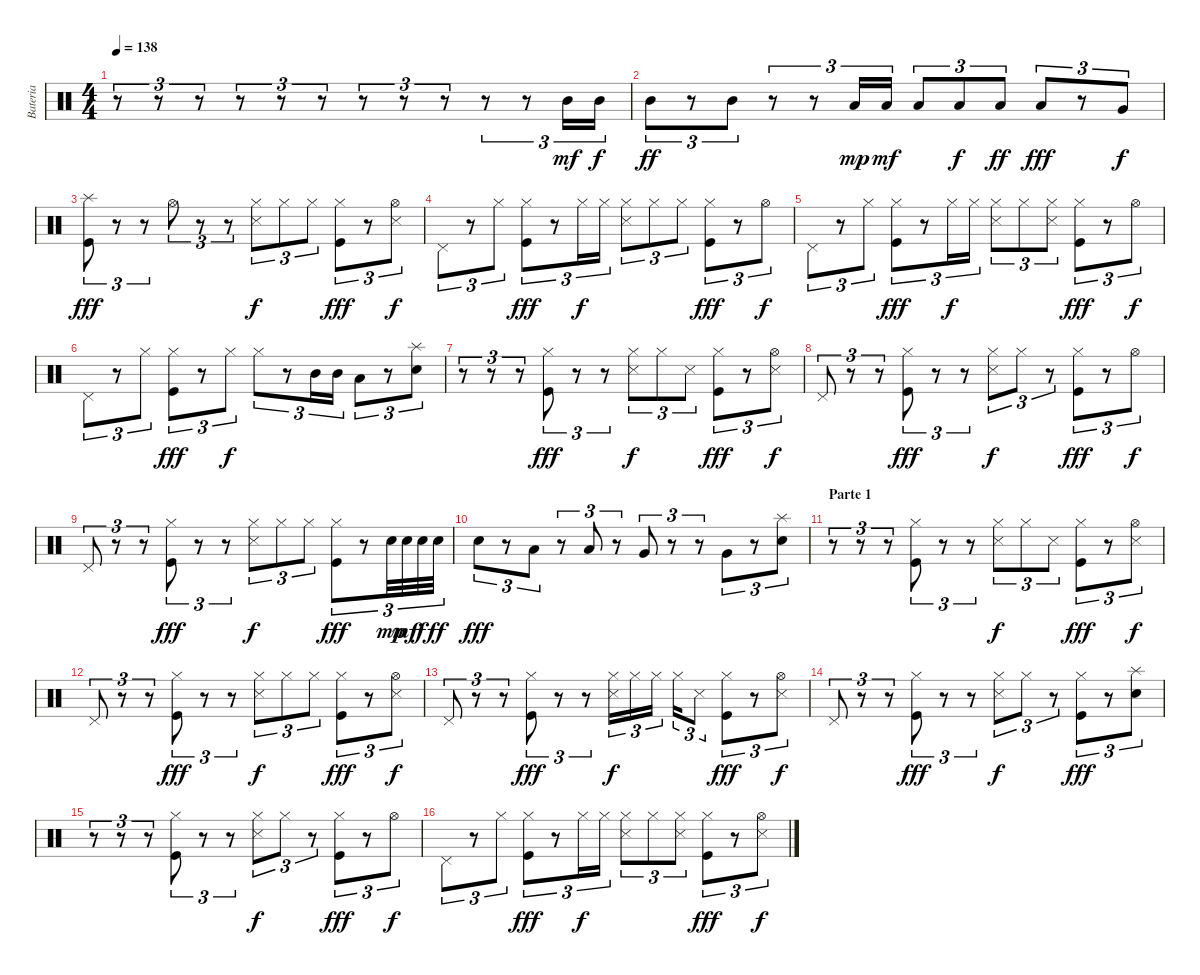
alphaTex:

\track ("Bateria" "Bateria") {instrument percussion}
\staff {score}
\articulation defaults
\ts (4 4)
\tempo 138
\clef neutral
\ks c
r.8{tu (3 2) dy mf} r.8{tu (3 2)} r.8{tu (3 2)} r.8{tu (3 2)} r.8{tu (3 2)} r.8{tu (3 2)} r.8{tu (3 2)} r.8{tu (3 2)} r.8{tu (3 2)} r.8{tu (3 2)} r.8{tu (3 2)} "Mid Tom (hit)".16{tu (3 2)} "Mid Tom (hit)".16{tu (3 2) dy f} |
"Mid Tom (hit)".8{tu (3 2) dy ff} r.8{tu (3 2)} "Mid Tom (hit)".8{tu (3 2)} r.8{tu (3 2)} r.8{tu (3 2)} "Low Tom (hit)".16{tu (3 2) dy mp} "Low Tom (hit)".16{tu (3 2) dy mf} "Low Tom (hit)".8{tu (3 2)} "Low Tom (hit)".8{tu (3 2) dy f} "Low Tom (hit)".8{tu (3 2) dy ff} "Low Tom (hit)".8{tu (3 2) dy fff} r.8{tu (3 2)} "Very Low Tom (hit)".8{tu (3 2) dy f} |
("Kick (hit)" "Splash (hit)").8{tu (3 2) dy fff} r.8{tu (3 2)} r.8{tu (3 2)} "Hi-Hat (open)".8{tu (3 2)} r.8{tu (3 2)} r.8{tu (3 2)} ("Snare (side stick) 3" "Hi-Hat (closed)").8{tu (3 2) dy f} "Hi-Hat (closed)".8{tu (3 2)} "Hi-Hat (closed)".8{tu (3 2)} ("Kick (hit)" "Hi-Hat (closed)").8{tu (3 2) dy fff} r.8{tu (3 2)} ("Snare (side stick) 3" "Hi-Hat (open)").8{tu (3 2) dy f} |
"Pedal Hi-Hat (hit)".8{tu (3 2)} r.8{tu (3 2)} "Hi-Hat (closed)".8{tu (3 2)} ("Kick (hit)" "Hi-Hat (closed)").8{tu (3 2) dy fff} r.8{tu (3 2)} "Hi-Hat (closed)".16{tu (3 2) dy f} "Hi-Hat (closed)".16{tu (3 2)} ("Snare (side stick) 3" "Hi-Hat (closed)").8{tu (3 2)} "Hi-Hat (closed)".8{tu (3 2)} "Hi-Hat (closed)".8{tu (3 2)} ("Kick (hit)" "Hi-Hat (closed)").8{tu (3 2) dy fff} r.8{tu (3 2)} "Hi-Hat (open)".8{tu (3 2) dy f} |
"Pedal Hi-Hat (hit)".8{tu (3 2)} r.8{tu (3 2)} "Hi-Hat (closed)".8{tu (3 2)} ("Kick (hit)" "Hi-Hat (closed)").8{tu (3 2) dy fff} r.8{tu (3 2)} "Hi-Hat (closed)".16{tu (3 2) dy f} "Hi-Hat (closed)".16{tu (3 2)} ("Snare (side stick) 3" "Hi-Hat (closed)").8{tu (3 2)} "Hi-Hat (closed)".8{tu (3 2)} ("Snare (side stick) 3" "Hi-Hat (closed)").8{tu (3 2)} ("Kick (hit)" "Hi-Hat (closed)").8{tu (3 2) dy fff} r.8{tu (3 2)} "Hi-Hat (open)".8{tu (3 2) dy f} |
"Pedal Hi-Hat (hit)".8{tu (3 2)} r.8{tu (3 2)} "Hi-Hat (closed)".8{tu (3 2)} ("Kick (hit)" "Hi-Hat (closed)").8{tu (3 2) dy fff} r.8{tu (3 2)} "Hi-Hat (closed)".8{tu (3 2) dy f} "Hi-Hat (closed)".8{tu (3 2)} r.8{tu (3 2)} "Mid Tom (hit)".16{tu (3 2)} "Mid Tom (hit)".16{tu (3 2)} "Low Tom (hit)".8{tu (3 2)} r.8{tu (3 2)} ("Electric Snare (hit)" "Splash (hit)").8{tu (3 2)} |
r.8{tu (3 2)} r.8{tu (3 2)} r.8{tu (3 2)} ("Kick (hit)" "Hi-Hat (closed)").8{tu (3 2) dy fff} r.8{tu (3 2)} r.8{tu (3 2)} ("Snare (side stick) 3" "Hi-Hat (closed)").8{tu (3 2) dy f} "Hi-Hat (closed)".8{tu (3 2)} "Snare (side stick) 3".8{tu (3 2)} ("Kick (hit)" "Hi-Hat (closed)").8{tu (3 2) dy fff} r.8{tu (3 2)} ("Snare (side stick) 3" "Hi-Hat (open)").8{tu (3 2) dy f} |
"Pedal Hi-Hat (hit)".8{tu (3 2)} r.8{tu (3 2)} r.8{tu (3 2)} ("Kick (hit)" "Hi-Hat (closed)").8{tu (3 2) dy fff} r.8{tu (3 2)} r.8{tu (3 2)} ("Snare (side stick) 3" "Hi-Hat (closed)").8{tu (3 2) dy f} "Hi-Hat (closed)".8{tu (3 2)} r.8{tu (3 2)} ("Kick (hit)" "Hi-Hat (closed)").8{tu (3 2) dy fff} r.8{tu (3 2)} "Hi-Hat (open)".8{tu (3 2) dy f} |
"Pedal Hi-Hat (hit)".8{tu (3 2)} r.8{tu (3 2)} r.8{tu (3 2)} ("Kick (hit)" "Hi-Hat (closed)").8{tu (3 2) dy fff} r.8{tu (3 2)} r.8{tu (3 2)} ("Snare (side stick) 3" "Hi-Hat (closed)").8{tu (3 2) dy f} "Hi-Hat (closed)".8{tu (3 2)} "Hi-Hat (closed)".8{tu (3 2)} ("Kick (hit)" "Hi-Hat (closed)").8{tu (3 2) dy fff} r.8{tu (3 2)} "Electric Snare (hit)".32{tu (3 2) dy mp} "Electric Snare (hit)".32{tu (3 2) dy mf} "Electric Snare (hit)".32{tu (3 2) dy f} "Electric Snare (hit)".32{tu (3 2) dy ff} |
"Electric Snare (hit)".8{tu (3 2) dy fff} r.8{tu (3 2)} "Low Tom (hit)".8{tu (3 2)} r.8{tu (3 2)} "Low Tom (hit)".8{tu (3 2)} r.8{tu (3 2)} "Very Low Tom (hit)".8{tu (3 2)} r.8{tu (3 2)} r.8{tu (3 2)} "Very Low Tom (hit)".8{tu (3 2)} r.8{tu (3 2)} ("Electric Snare (hit)" "Splash (hit)").8{tu (3 2)} |
\section ("" "Parte 1")
r.8{tu (3 2)} r.8{tu (3 2)} r.8{tu (3 2)} ("Kick (hit)" "Hi-Hat (closed)").8{tu (3 2)} r.8{tu (3 2)} r.8{tu (3 2)} ("Snare (side stick) 3" "Hi-Hat (closed)").8{tu (3 2) dy f} "Hi-Hat (closed)".8{tu (3 2)} "Snare (side stick) 3".8{tu (3 2)} ("Kick (hit)" "Hi-Hat (closed)").8{tu (3 2) dy fff} r.8{tu (3 2)} ("Snare (side stick) 3" "Hi-Hat (open)").8{tu (3 2) dy f} |
"Pedal Hi-Hat (hit)".8{tu (3 2)} r.8{tu (3 2)} r.8{tu (3 2)} ("Kick (hit)" "Hi-Hat (closed)").8{tu (3 2) dy fff} r.8{tu (3 2)} r.8{tu (3 2)} ("Snare (side stick) 3" "Hi-Hat (closed)").8{tu (3 2) dy f} "Hi-Hat (closed)".8{tu (3 2)} "Hi-Hat (closed)".8{tu (3 2)} ("Kick (hit)" "Hi-Hat (closed)").8{tu (3 2) dy fff} r.8{tu (3 2)} ("Snare (side stick) 3" "Hi-Hat (open)").8{tu (3 2) dy f} |
"Pedal Hi-Hat (hit)".8{tu (3 2)} r.8{tu (3 2)} r.8{tu (3 2)} ("Kick (hit)" "Hi-Hat (closed)").8{tu (3 2) dy fff} r.8{tu (3 2)} r.8{tu (3 2)} ("Snare (side stick) 3" "Hi-Hat (closed)").16{tu (3 2) dy f} "Hi-Hat (closed)".16{tu (3 2)} "Hi-Hat (closed)".16{tu (3 2)} "Hi-Hat (closed)".16{tu (3 2)} "Snare (side stick) 3".8{tu (3 2)} ("Kick (hit)" "Hi-Hat (closed)").8{tu (3 2) dy fff} r.8{tu (3 2)} ("Snare (side stick) 3" "Hi-Hat (open)").8{tu (3 2) dy f} |
"Pedal Hi-Hat (hit)".8{tu (3 2)} r.8{tu (3 2)} r.8{tu (3 2)} ("Kick (hit)" "Hi-Hat (closed)").8{tu (3 2) dy fff} r.8{tu (3 2)} r.8{tu (3 2)} ("Snare (side stick) 3" "Hi-Hat (closed)").8{tu (3 2) dy f} "Hi-Hat (closed)".8{tu (3 2)} r.8{tu (3 2)} ("Kick (hit)" "Hi-Hat (closed)").8{tu (3 2) dy fff} r.8{tu (3 2)} ("Electric Snare (hit)" "Splash (hit)").8{tu (3 2)} |
r.8{tu (3 2)} r.8{tu (3 2)} r.8{tu (3 2)} ("Kick (hit)" "Hi-Hat (closed)").8{tu (3 2)} r.8{tu (3 2)} r.8{tu (3 2)} ("Snare (side stick) 3" "Hi-Hat (closed)").8{tu (3 2) dy f} "Hi-Hat (closed)".8{tu (3 2)} r.8{tu (3 2)} ("Kick (hit)" "Hi-Hat (closed)").8{tu (3 2) dy fff} r.8{tu (3 2)} "Hi-Hat (open)".8{tu (3 2) dy f} |
"Pedal Hi-Hat (hit)".8{tu (3 2)} r.8{tu (3 2)} "Hi-Hat (closed)".8{tu (3 2)} ("Kick (hit)" "Hi-Hat (closed)").8{tu (3 2) dy fff} r.8{tu (3 2)} "Hi-Hat (closed)".16{tu (3 2) dy f} "Hi-Hat (closed)".16{tu (3 2)} ("Snare (side stick) 3" "Hi-Hat (closed)").8{tu (3 2)} "Hi-Hat (closed)".8{tu (3 2)} ("Snare (side stick) 3" "Hi-Hat (closed)").8{tu (3 2)} ("Kick (hit)" "Hi-Hat (closed)").8{tu (3 2) dy fff} r.8{tu (3 2)} ("Snare (side stick) 3" "Hi-Hat (open)").8{tu (3 2) dy f}
